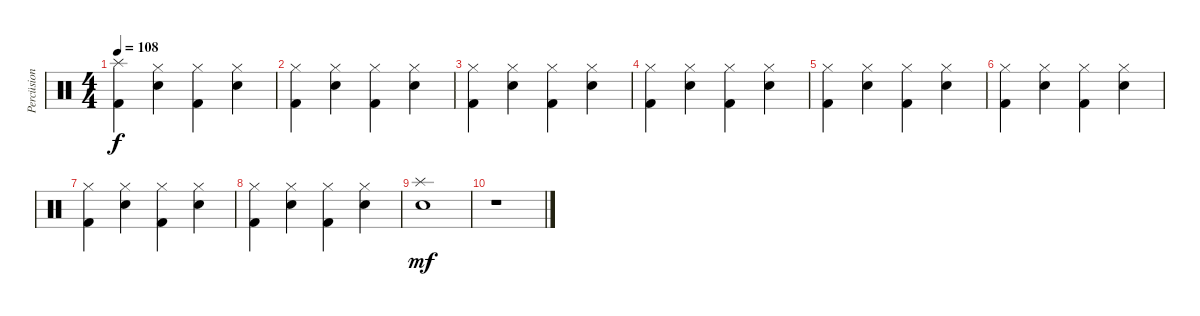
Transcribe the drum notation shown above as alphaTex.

\track ("Percüsion" "Percüsion") {instrument percussion}
\staff {score}
\articulation defaults
\ts (4 4)
\tempo 108
\clef neutral
\ks c
("Splash (hit)" "Kick (hit) 2").4{dy f} ("Hi-Hat (closed)" "Snare (hit) 2").4 ("Hi-Hat (closed)" "Kick (hit) 2").4 ("Hi-Hat (closed)" "Snare (hit) 2").4 |
("Hi-Hat (closed)" "Kick (hit) 2").4 ("Hi-Hat (closed)" "Snare (hit) 2").4 ("Hi-Hat (closed)" "Kick (hit) 2").4 ("Hi-Hat (closed)" "Snare (hit) 2").4 |
("Hi-Hat (closed)" "Kick (hit) 2").4 ("Hi-Hat (closed)" "Snare (hit) 2").4 ("Hi-Hat (closed)" "Kick (hit) 2").4 ("Hi-Hat (closed)" "Snare (hit) 2").4 |
("Hi-Hat (closed)" "Kick (hit) 2").4 ("Hi-Hat (closed)" "Snare (hit) 2").4 ("Hi-Hat (closed)" "Kick (hit) 2").4 ("Hi-Hat (closed)" "Snare (hit) 2").4 |
("Hi-Hat (closed)" "Kick (hit) 2").4 ("Hi-Hat (closed)" "Snare (hit) 2").4 ("Hi-Hat (closed)" "Kick (hit) 2").4 ("Hi-Hat (closed)" "Snare (hit) 2").4 |
("Hi-Hat (closed)" "Kick (hit) 2").4 ("Hi-Hat (closed)" "Snare (hit) 2").4 ("Hi-Hat (closed)" "Kick (hit) 2").4 ("Hi-Hat (closed)" "Snare (hit) 2").4 |
("Hi-Hat (closed)" "Kick (hit) 2").4 ("Hi-Hat (closed)" "Snare (hit) 2").4 ("Hi-Hat (closed)" "Kick (hit) 2").4 ("Hi-Hat (closed)" "Snare (hit) 2").4 |
("Hi-Hat (closed)" "Kick (hit) 2").4 ("Hi-Hat (closed)" "Snare (hit) 2").4 ("Hi-Hat (closed)" "Kick (hit) 2").4 ("Hi-Hat (closed)" "Snare (hit) 2").4 |
("Splash (hit)" "Snare (hit) 2").1{dy mf} |
r.1
